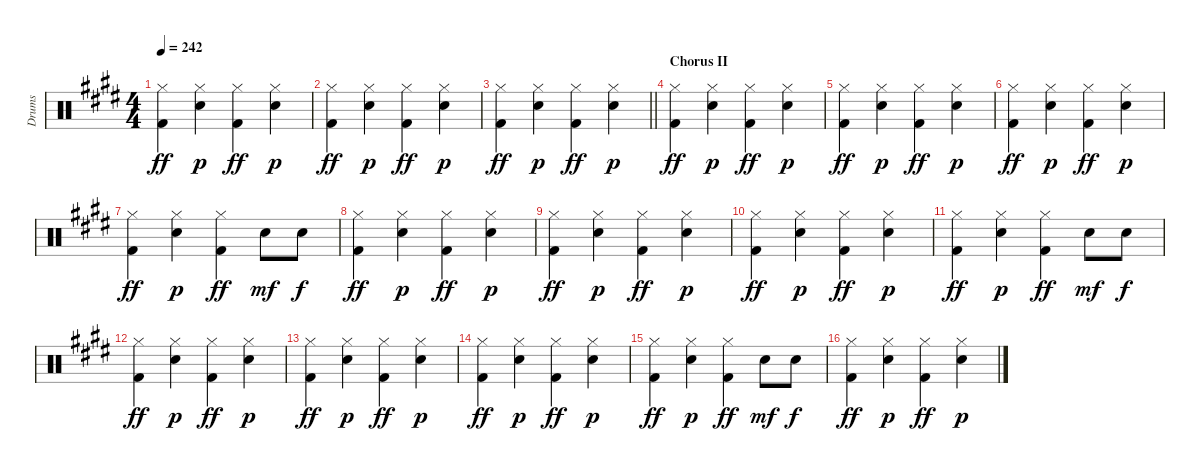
\track ("Drums" "Drums") {instrument percussion}
\staff {score}
\articulation defaults
\ts (4 4)
\tempo 242
\clef neutral
\ks e
("Hi-Hat (closed)" "Kick (hit) 2").4{dy ff} ("Hi-Hat (closed)" "Electric Snare (hit)").4{dy p} ("Hi-Hat (closed)" "Kick (hit) 2").4{dy ff} ("Hi-Hat (closed)" "Electric Snare (hit)").4{dy p} |
("Hi-Hat (closed)" "Kick (hit) 2").4{dy ff} ("Hi-Hat (closed)" "Electric Snare (hit)").4{dy p} ("Hi-Hat (closed)" "Kick (hit) 2").4{dy ff} ("Hi-Hat (closed)" "Electric Snare (hit)").4{dy p} |
\barLineRight lightlight
("Hi-Hat (closed)" "Kick (hit) 2").4{dy ff} ("Hi-Hat (closed)" "Electric Snare (hit)").4{dy p} ("Hi-Hat (closed)" "Kick (hit) 2").4{dy ff} ("Hi-Hat (closed)" "Electric Snare (hit)").4{dy p} |
\section ("" "Chorus II")
("Hi-Hat (closed)" "Kick (hit) 2").4{dy ff} ("Hi-Hat (closed)" "Electric Snare (hit)").4{dy p} ("Hi-Hat (closed)" "Kick (hit) 2").4{dy ff} ("Hi-Hat (closed)" "Electric Snare (hit)").4{dy p} |
("Hi-Hat (closed)" "Kick (hit) 2").4{dy ff} ("Hi-Hat (closed)" "Electric Snare (hit)").4{dy p} ("Hi-Hat (closed)" "Kick (hit) 2").4{dy ff} ("Hi-Hat (closed)" "Electric Snare (hit)").4{dy p} |
("Hi-Hat (closed)" "Kick (hit) 2").4{dy ff} ("Hi-Hat (closed)" "Electric Snare (hit)").4{dy p} ("Hi-Hat (closed)" "Kick (hit) 2").4{dy ff} ("Hi-Hat (closed)" "Electric Snare (hit)").4{dy p} |
("Hi-Hat (closed)" "Kick (hit) 2").4{dy ff} ("Hi-Hat (closed)" "Electric Snare (hit)").4{dy p} ("Hi-Hat (closed)" "Kick (hit) 2").4{dy ff} "Electric Snare (hit)".8{dy mf} "Electric Snare (hit)".8{dy f} |
("Hi-Hat (closed)" "Kick (hit) 2").4{dy ff} ("Hi-Hat (closed)" "Electric Snare (hit)").4{dy p} ("Hi-Hat (closed)" "Kick (hit) 2").4{dy ff} ("Hi-Hat (closed)" "Electric Snare (hit)").4{dy p} |
("Hi-Hat (closed)" "Kick (hit) 2").4{dy ff} ("Hi-Hat (closed)" "Electric Snare (hit)").4{dy p} ("Hi-Hat (closed)" "Kick (hit) 2").4{dy ff} ("Hi-Hat (closed)" "Electric Snare (hit)").4{dy p} |
("Hi-Hat (closed)" "Kick (hit) 2").4{dy ff} ("Hi-Hat (closed)" "Electric Snare (hit)").4{dy p} ("Hi-Hat (closed)" "Kick (hit) 2").4{dy ff} ("Hi-Hat (closed)" "Electric Snare (hit)").4{dy p} |
("Hi-Hat (closed)" "Kick (hit) 2").4{dy ff} ("Hi-Hat (closed)" "Electric Snare (hit)").4{dy p} ("Hi-Hat (closed)" "Kick (hit) 2").4{dy ff} "Electric Snare (hit)".8{dy mf} "Electric Snare (hit)".8{dy f} |
("Hi-Hat (closed)" "Kick (hit) 2").4{dy ff} ("Hi-Hat (closed)" "Electric Snare (hit)").4{dy p} ("Hi-Hat (closed)" "Kick (hit) 2").4{dy ff} ("Hi-Hat (closed)" "Electric Snare (hit)").4{dy p} |
("Hi-Hat (closed)" "Kick (hit) 2").4{dy ff} ("Hi-Hat (closed)" "Electric Snare (hit)").4{dy p} ("Hi-Hat (closed)" "Kick (hit) 2").4{dy ff} ("Hi-Hat (closed)" "Electric Snare (hit)").4{dy p} |
("Hi-Hat (closed)" "Kick (hit) 2").4{dy ff} ("Hi-Hat (closed)" "Electric Snare (hit)").4{dy p} ("Hi-Hat (closed)" "Kick (hit) 2").4{dy ff} ("Hi-Hat (closed)" "Electric Snare (hit)").4{dy p} |
("Hi-Hat (closed)" "Kick (hit) 2").4{dy ff} ("Hi-Hat (closed)" "Electric Snare (hit)").4{dy p} ("Hi-Hat (closed)" "Kick (hit) 2").4{dy ff} "Electric Snare (hit)".8{dy mf} "Electric Snare (hit)".8{dy f} |
("Hi-Hat (closed)" "Kick (hit) 2").4{dy ff} ("Hi-Hat (closed)" "Electric Snare (hit)").4{dy p} ("Hi-Hat (closed)" "Kick (hit) 2").4{dy ff} ("Hi-Hat (closed)" "Electric Snare (hit)").4{dy p}
